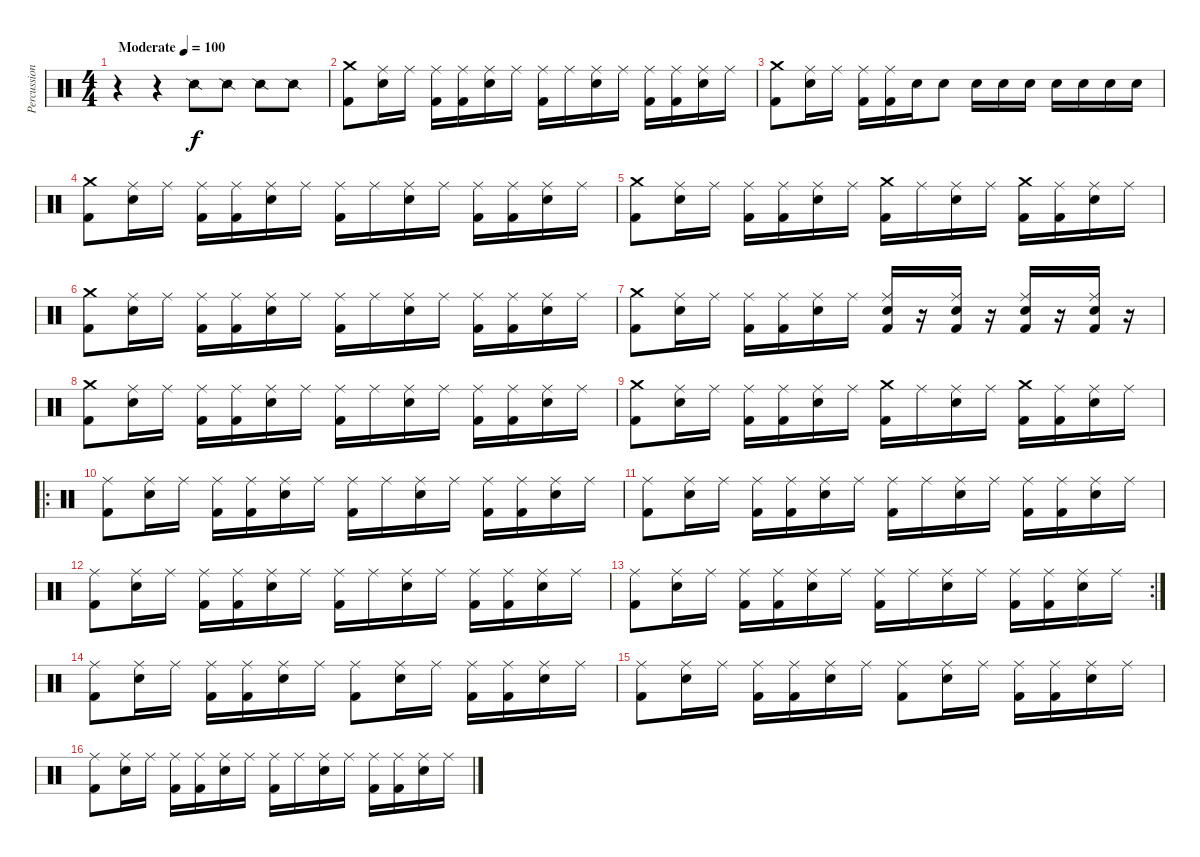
\track ("Percussion" "Percussion") {instrument percussion}
\staff {score}
\articulation defaults
\ts (4 4)
\tempo (100 "Moderate")
\clef neutral
\ks c
r.4{dy f} r.4 "Snare (side stick) 2".8 "Snare (side stick) 2".8 "Snare (side stick) 2".8 "Snare (side stick) 2".8 |
("Crash medium (hit)" "Kick (hit) 2").8 ("Ride (middle)" "Electric Snare (hit)").16 "Ride (middle)".16 ("Ride (middle)" "Kick (hit) 2").16 ("Ride (middle)" "Kick (hit) 2").16 ("Ride (middle)" "Electric Snare (hit)").16 "Ride (middle)".16 ("Ride (middle)" "Kick (hit) 2").16 "Ride (middle)".16 ("Ride (middle)" "Electric Snare (hit)").16 "Ride (middle)".16 ("Ride (middle)" "Kick (hit) 2").16 ("Ride (middle)" "Kick (hit) 2").16 ("Ride (middle)" "Electric Snare (hit)").16 "Ride (middle)".16 |
("Crash medium (hit)" "Kick (hit) 2").8 ("Ride (middle)" "Electric Snare (hit)").16 "Ride (middle)".16 ("Ride (middle)" "Kick (hit) 2").16 ("Ride (middle)" "Kick (hit) 2").16 "Electric Snare (hit)".16 "Electric Snare (hit)".8 "Electric Snare (hit)".16 "Electric Snare (hit)".16 "Electric Snare (hit)".16 "Electric Snare (hit)".16 "Electric Snare (hit)".16 "Electric Snare (hit)".16 "Electric Snare (hit)".16 |
("Crash medium (hit)" "Kick (hit) 2").8 ("Ride (middle)" "Electric Snare (hit)").16 "Ride (middle)".16 ("Ride (middle)" "Kick (hit) 2").16 ("Ride (middle)" "Kick (hit) 2").16 ("Ride (middle)" "Electric Snare (hit)").16 "Ride (middle)".16 ("Ride (middle)" "Kick (hit) 2").16 "Ride (middle)".16 ("Ride (middle)" "Electric Snare (hit)").16 "Ride (middle)".16 ("Ride (middle)" "Kick (hit) 2").16 ("Ride (middle)" "Kick (hit) 2").16 ("Ride (middle)" "Electric Snare (hit)").16 "Ride (middle)".16 |
("Crash medium (hit)" "Kick (hit) 2").8 ("Ride (middle)" "Electric Snare (hit)").16 "Ride (middle)".16 ("Ride (middle)" "Kick (hit) 2").16 ("Ride (middle)" "Kick (hit) 2").16 ("Ride (middle)" "Electric Snare (hit)").16 "Ride (middle)".16 ("Crash medium (hit)" "Kick (hit) 2").16 "Ride (middle)".16 ("Ride (middle)" "Electric Snare (hit)").16 "Ride (middle)".16 ("Crash medium (hit)" "Kick (hit) 2").16 ("Ride (middle)" "Kick (hit) 2").16 ("Ride (middle)" "Electric Snare (hit)").16 "Ride (middle)".16 |
("Crash medium (hit)" "Kick (hit) 2").8 ("Ride (middle)" "Electric Snare (hit)").16 "Ride (middle)".16 ("Ride (middle)" "Kick (hit) 2").16 ("Ride (middle)" "Kick (hit) 2").16 ("Ride (middle)" "Electric Snare (hit)").16 "Ride (middle)".16 ("Ride (middle)" "Kick (hit) 2").16 "Ride (middle)".16 ("Ride (middle)" "Electric Snare (hit)").16 "Ride (middle)".16 ("Ride (middle)" "Kick (hit) 2").16 ("Ride (middle)" "Kick (hit) 2").16 ("Ride (middle)" "Electric Snare (hit)").16 "Ride (middle)".16 |
("Crash medium (hit)" "Kick (hit) 2").8 ("Ride (middle)" "Electric Snare (hit)").16 "Ride (middle)".16 ("Ride (middle)" "Kick (hit) 2").16 ("Ride (middle)" "Kick (hit) 2").16 ("Ride (middle)" "Electric Snare (hit)").16 "Ride (middle)".16 ("Ride (middle)" "Snare (hit) 2" "Kick (hit) 2").16 r.16 ("Ride (middle)" "Snare (hit) 2" "Kick (hit) 2").16 r.16 ("Ride (middle)" "Snare (hit) 2" "Kick (hit) 2").16 r.16 ("Ride (middle)" "Snare (hit) 2" "Kick (hit) 2").16 r.16 |
("Crash medium (hit)" "Kick (hit) 2").8 ("Ride (middle)" "Electric Snare (hit)").16 "Ride (middle)".16 ("Ride (middle)" "Kick (hit) 2").16 ("Ride (middle)" "Kick (hit) 2").16 ("Ride (middle)" "Electric Snare (hit)").16 "Ride (middle)".16 ("Ride (middle)" "Kick (hit) 2").16 "Ride (middle)".16 ("Ride (middle)" "Electric Snare (hit)").16 "Ride (middle)".16 ("Ride (middle)" "Kick (hit) 2").16 ("Ride (middle)" "Kick (hit) 2").16 ("Ride (middle)" "Electric Snare (hit)").16 "Ride (middle)".16 |
("Crash medium (hit)" "Kick (hit) 2").8 ("Ride (middle)" "Electric Snare (hit)").16 "Ride (middle)".16 ("Ride (middle)" "Kick (hit) 2").16 ("Ride (middle)" "Kick (hit) 2").16 ("Ride (middle)" "Electric Snare (hit)").16 "Ride (middle)".16 ("Crash medium (hit)" "Kick (hit) 2").16 "Ride (middle)".16 ("Ride (middle)" "Electric Snare (hit)").16 "Ride (middle)".16 ("Crash medium (hit)" "Kick (hit) 2").16 ("Ride (middle)" "Kick (hit) 2").16 ("Ride (middle)" "Electric Snare (hit)").16 "Ride (middle)".16 |
\ro
("Ride (middle)" "Kick (hit) 2").8 ("Ride (middle)" "Electric Snare (hit)").16 "Ride (middle)".16 ("Ride (middle)" "Kick (hit) 2").16 ("Ride (middle)" "Kick (hit) 2").16 ("Ride (middle)" "Electric Snare (hit)").16 "Ride (middle)".16 ("Ride (middle)" "Kick (hit) 2").16 "Ride (middle)".16 ("Ride (middle)" "Electric Snare (hit)").16 "Ride (middle)".16 ("Ride (middle)" "Kick (hit) 2").16 ("Ride (middle)" "Kick (hit) 2").16 ("Ride (middle)" "Electric Snare (hit)").16 "Ride (middle)".16 |
("Ride (middle)" "Kick (hit) 2").8 ("Ride (middle)" "Electric Snare (hit)").16 "Ride (middle)".16 ("Ride (middle)" "Kick (hit) 2").16 ("Ride (middle)" "Kick (hit) 2").16 ("Ride (middle)" "Electric Snare (hit)").16 "Ride (middle)".16 ("Ride (middle)" "Kick (hit) 2").16 "Ride (middle)".16 ("Ride (middle)" "Electric Snare (hit)").16 "Ride (middle)".16 ("Ride (middle)" "Kick (hit) 2").16 ("Ride (middle)" "Kick (hit) 2").16 ("Ride (middle)" "Electric Snare (hit)").16 "Ride (middle)".16 |
("Ride (middle)" "Kick (hit) 2").8 ("Ride (middle)" "Electric Snare (hit)").16 "Ride (middle)".16 ("Ride (middle)" "Kick (hit) 2").16 ("Ride (middle)" "Kick (hit) 2").16 ("Ride (middle)" "Electric Snare (hit)").16 "Ride (middle)".16 ("Ride (middle)" "Kick (hit) 2").16 "Ride (middle)".16 ("Ride (middle)" "Electric Snare (hit)").16 "Ride (middle)".16 ("Ride (middle)" "Kick (hit) 2").16 ("Ride (middle)" "Kick (hit) 2").16 ("Ride (middle)" "Electric Snare (hit)").16 "Ride (middle)".16 |
\rc 2
("Ride (middle)" "Kick (hit) 2").8 ("Ride (middle)" "Electric Snare (hit)").16 "Ride (middle)".16 ("Ride (middle)" "Kick (hit) 2").16 ("Ride (middle)" "Kick (hit) 2").16 ("Ride (middle)" "Electric Snare (hit)").16 "Ride (middle)".16 ("Ride (middle)" "Kick (hit) 2").16 "Ride (middle)".16 ("Ride (middle)" "Electric Snare (hit)").16 "Ride (middle)".16 ("Ride (middle)" "Kick (hit) 2").16 ("Ride (middle)" "Kick (hit) 2").16 ("Ride (middle)" "Electric Snare (hit)").16 "Ride (middle)".16 |
("Ride (middle)" "Kick (hit) 2").8 ("Ride (middle)" "Electric Snare (hit)").16 "Ride (middle)".16 ("Ride (middle)" "Kick (hit) 2").16 ("Ride (middle)" "Kick (hit) 2").16 ("Ride (middle)" "Electric Snare (hit)").16 "Ride (middle)".16 ("Ride (middle)" "Kick (hit) 2").8 ("Ride (middle)" "Electric Snare (hit)").16 "Ride (middle)".16 ("Ride (middle)" "Kick (hit) 2").16 ("Ride (middle)" "Kick (hit) 2").16 ("Ride (middle)" "Electric Snare (hit)").16 "Ride (middle)".16 |
("Ride (middle)" "Kick (hit) 2").8 ("Ride (middle)" "Electric Snare (hit)").16 "Ride (middle)".16 ("Ride (middle)" "Kick (hit) 2").16 ("Ride (middle)" "Kick (hit) 2").16 ("Ride (middle)" "Electric Snare (hit)").16 "Ride (middle)".16 ("Ride (middle)" "Kick (hit) 2").8 ("Ride (middle)" "Electric Snare (hit)").16 "Ride (middle)".16 ("Ride (middle)" "Kick (hit) 2").16 ("Ride (middle)" "Kick (hit) 2").16 ("Ride (middle)" "Electric Snare (hit)").16 "Ride (middle)".16 |
("Ride (middle)" "Kick (hit) 2").8 ("Ride (middle)" "Electric Snare (hit)").16 "Ride (middle)".16 ("Ride (middle)" "Kick (hit) 2").16 ("Ride (middle)" "Kick (hit) 2").16 ("Ride (middle)" "Electric Snare (hit)").16 "Ride (middle)".16 ("Ride (middle)" "Kick (hit) 2").16 "Ride (middle)".16 ("Ride (middle)" "Electric Snare (hit)").16 "Ride (middle)".16 ("Ride (middle)" "Kick (hit) 2").16 ("Ride (middle)" "Kick (hit) 2").16 ("Ride (middle)" "Electric Snare (hit)").16 "Ride (middle)".16
